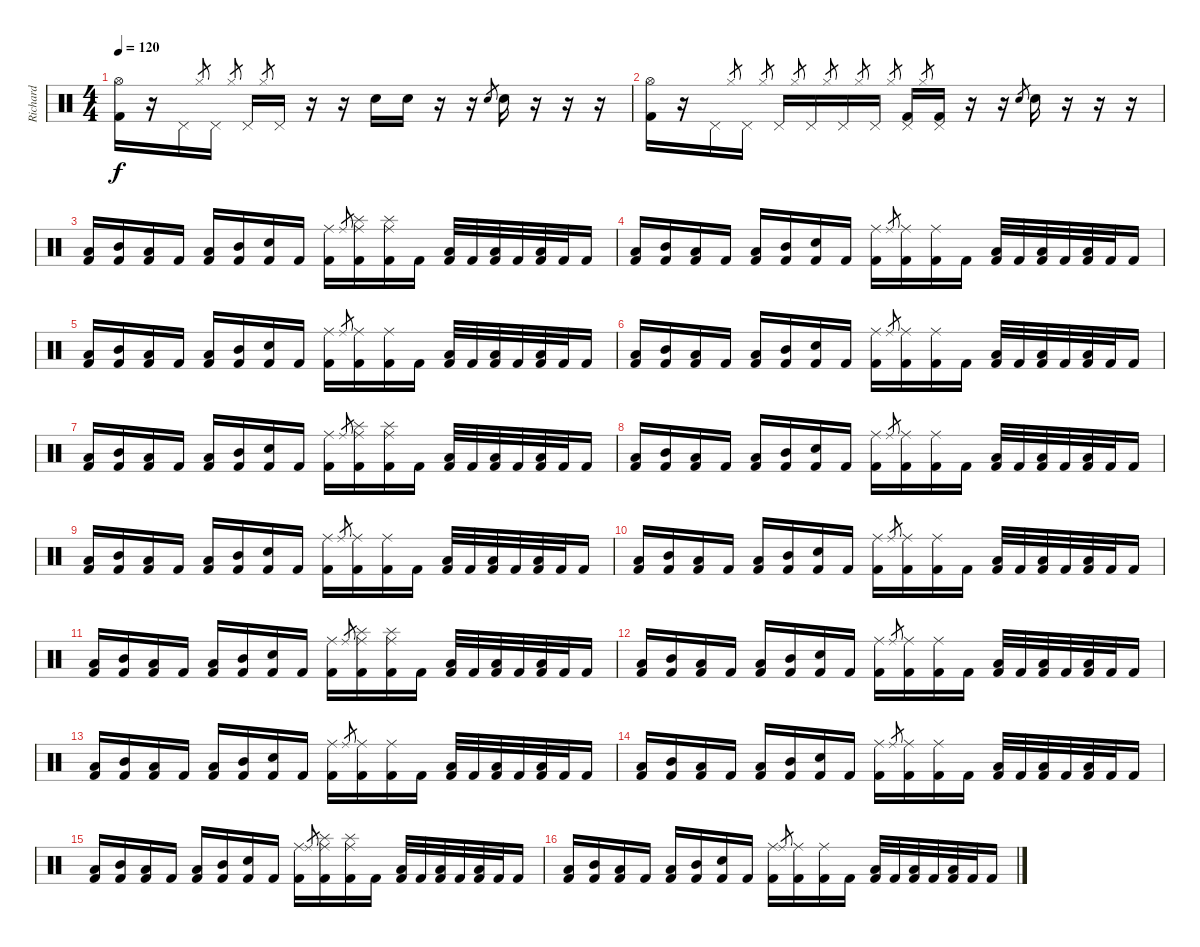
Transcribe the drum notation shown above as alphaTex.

\track ("Richard " "Richard ") {instrument percussion}
\staff {score}
\articulation defaults
\ts (4 4)
\tempo 120
\clef neutral
\ks c
("Hi-Hat (open)" "Kick (hit) 2").16{dy f} r.16 "Pedal Hi-Hat (hit)".16 "Hi-Hat (closed)".8{gr} "Pedal Hi-Hat (hit)".16 "Hi-Hat (closed)".8{gr} "Pedal Hi-Hat (hit)".16 "Hi-Hat (closed)".8{gr} "Pedal Hi-Hat (hit)".16 r.16 r.16 "Snare (hit) 2".16 "Snare (hit) 2".16 r.16 r.16 "Snare (hit) 2".8{gr} "Snare (hit) 2".16 r.16 r.16 r.16 |
("Hi-Hat (open)" "Kick (hit) 2").16 r.16 "Pedal Hi-Hat (hit)".16 "Hi-Hat (closed)".8{gr} "Pedal Hi-Hat (hit)".16 "Hi-Hat (closed)".8{gr} "Pedal Hi-Hat (hit)".16 "Hi-Hat (closed)".8{gr} "Pedal Hi-Hat (hit)".16 "Hi-Hat (closed)".8{gr} "Pedal Hi-Hat (hit)".16 "Hi-Hat (closed)".8{gr} "Pedal Hi-Hat (hit)".16 "Hi-Hat (closed)".8{gr} ("Pedal Hi-Hat (hit)" "Kick (hit) 2").16 "Hi-Hat (closed)".8{gr} ("Pedal Hi-Hat (hit)" "Kick (hit) 2").16 r.16 r.16 "Snare (hit) 2".8{gr} "Snare (hit) 2".16 r.16 r.16 r.16 |
("Low Tom (hit)" "Kick (hit) 2").16 ("Mid Tom (hit)" "Kick (hit) 2").16 ("Low Tom (hit)" "Kick (hit) 2").16 "Kick (hit) 2".16 ("Low Tom (hit)" "Kick (hit) 2").16 ("Mid Tom (hit)" "Kick (hit) 2").16 ("Snare (hit) 2" "Kick (hit) 2").16 "Kick (hit) 2".16 ("Ride (middle)" "Kick (hit) 2").16 "Ride (middle)".8{gr} ("Ride (middle)" "Splash (hit)" "Kick (hit) 2").16 ("Ride (middle)" "Splash (hit)" "Kick (hit) 2").16 "Kick (hit) 2".16 ("Low Tom (hit)" "Kick (hit) 2").32 "Kick (hit) 2".32 ("Low Tom (hit)" "Kick (hit) 2").32 "Kick (hit) 2".32 ("Low Tom (hit)" "Kick (hit) 2").32 "Kick (hit) 2".32 "Kick (hit) 2".16 |
("Low Tom (hit)" "Kick (hit) 2").16 ("Mid Tom (hit)" "Kick (hit) 2").16 ("Low Tom (hit)" "Kick (hit) 2").16 "Kick (hit) 2".16 ("Low Tom (hit)" "Kick (hit) 2").16 ("Mid Tom (hit)" "Kick (hit) 2").16 ("Snare (hit) 2" "Kick (hit) 2").16 "Kick (hit) 2".16 ("Ride (middle)" "Kick (hit) 2").16 "Ride (middle)".8{gr} ("Ride (middle)" "Kick (hit) 2").16 ("Ride (middle)" "Kick (hit) 2").16 "Kick (hit) 2".16 ("Low Tom (hit)" "Kick (hit) 2").32 "Kick (hit) 2".32 ("Low Tom (hit)" "Kick (hit) 2").32 "Kick (hit) 2".32 ("Low Tom (hit)" "Kick (hit) 2").32 "Kick (hit) 2".32 "Kick (hit) 2".16 |
("Low Tom (hit)" "Kick (hit) 2").16 ("Mid Tom (hit)" "Kick (hit) 2").16 ("Low Tom (hit)" "Kick (hit) 2").16 "Kick (hit) 2".16 ("Low Tom (hit)" "Kick (hit) 2").16 ("Mid Tom (hit)" "Kick (hit) 2").16 ("Snare (hit) 2" "Kick (hit) 2").16 "Kick (hit) 2".16 ("Ride (middle)" "Kick (hit) 2").16 "Ride (middle)".8{gr} ("Ride (middle)" "Kick (hit) 2").16 ("Ride (middle)" "Kick (hit) 2").16 "Kick (hit) 2".16 ("Low Tom (hit)" "Kick (hit) 2").32 "Kick (hit) 2".32 ("Low Tom (hit)" "Kick (hit) 2").32 "Kick (hit) 2".32 ("Low Tom (hit)" "Kick (hit) 2").32 "Kick (hit) 2".32 "Kick (hit) 2".16 |
("Low Tom (hit)" "Kick (hit) 2").16 ("Mid Tom (hit)" "Kick (hit) 2").16 ("Low Tom (hit)" "Kick (hit) 2").16 "Kick (hit) 2".16 ("Low Tom (hit)" "Kick (hit) 2").16 ("Mid Tom (hit)" "Kick (hit) 2").16 ("Snare (hit) 2" "Kick (hit) 2").16 "Kick (hit) 2".16 ("Ride (middle)" "Kick (hit) 2").16 "Ride (middle)".8{gr} ("Ride (middle)" "Kick (hit) 2").16 ("Ride (middle)" "Kick (hit) 2").16 "Kick (hit) 2".16 ("Low Tom (hit)" "Kick (hit) 2").32 "Kick (hit) 2".32 ("Low Tom (hit)" "Kick (hit) 2").32 "Kick (hit) 2".32 ("Low Tom (hit)" "Kick (hit) 2").32 "Kick (hit) 2".32 "Kick (hit) 2".16 |
("Low Tom (hit)" "Kick (hit) 2").16 ("Mid Tom (hit)" "Kick (hit) 2").16 ("Low Tom (hit)" "Kick (hit) 2").16 "Kick (hit) 2".16 ("Low Tom (hit)" "Kick (hit) 2").16 ("Mid Tom (hit)" "Kick (hit) 2").16 ("Snare (hit) 2" "Kick (hit) 2").16 "Kick (hit) 2".16 ("Ride (middle)" "Kick (hit) 2").16 "Ride (middle)".8{gr} ("Ride (middle)" "Splash (hit)" "Kick (hit) 2").16 ("Ride (middle)" "Splash (hit)" "Kick (hit) 2").16 "Kick (hit) 2".16 ("Low Tom (hit)" "Kick (hit) 2").32 "Kick (hit) 2".32 ("Low Tom (hit)" "Kick (hit) 2").32 "Kick (hit) 2".32 ("Low Tom (hit)" "Kick (hit) 2").32 "Kick (hit) 2".32 "Kick (hit) 2".16 |
("Low Tom (hit)" "Kick (hit) 2").16 ("Mid Tom (hit)" "Kick (hit) 2").16 ("Low Tom (hit)" "Kick (hit) 2").16 "Kick (hit) 2".16 ("Low Tom (hit)" "Kick (hit) 2").16 ("Mid Tom (hit)" "Kick (hit) 2").16 ("Snare (hit) 2" "Kick (hit) 2").16 "Kick (hit) 2".16 ("Ride (middle)" "Kick (hit) 2").16 "Ride (middle)".8{gr} ("Ride (middle)" "Kick (hit) 2").16 ("Ride (middle)" "Kick (hit) 2").16 "Kick (hit) 2".16 ("Low Tom (hit)" "Kick (hit) 2").32 "Kick (hit) 2".32 ("Low Tom (hit)" "Kick (hit) 2").32 "Kick (hit) 2".32 ("Low Tom (hit)" "Kick (hit) 2").32 "Kick (hit) 2".32 "Kick (hit) 2".16 |
("Low Tom (hit)" "Kick (hit) 2").16 ("Mid Tom (hit)" "Kick (hit) 2").16 ("Low Tom (hit)" "Kick (hit) 2").16 "Kick (hit) 2".16 ("Low Tom (hit)" "Kick (hit) 2").16 ("Mid Tom (hit)" "Kick (hit) 2").16 ("Snare (hit) 2" "Kick (hit) 2").16 "Kick (hit) 2".16 ("Ride (middle)" "Kick (hit) 2").16 "Ride (middle)".8{gr} ("Ride (middle)" "Kick (hit) 2").16 ("Ride (middle)" "Kick (hit) 2").16 "Kick (hit) 2".16 ("Low Tom (hit)" "Kick (hit) 2").32 "Kick (hit) 2".32 ("Low Tom (hit)" "Kick (hit) 2").32 "Kick (hit) 2".32 ("Low Tom (hit)" "Kick (hit) 2").32 "Kick (hit) 2".32 "Kick (hit) 2".16 |
("Low Tom (hit)" "Kick (hit) 2").16 ("Mid Tom (hit)" "Kick (hit) 2").16 ("Low Tom (hit)" "Kick (hit) 2").16 "Kick (hit) 2".16 ("Low Tom (hit)" "Kick (hit) 2").16 ("Mid Tom (hit)" "Kick (hit) 2").16 ("Snare (hit) 2" "Kick (hit) 2").16 "Kick (hit) 2".16 ("Ride (middle)" "Kick (hit) 2").16 "Ride (middle)".8{gr} ("Ride (middle)" "Kick (hit) 2").16 ("Ride (middle)" "Kick (hit) 2").16 "Kick (hit) 2".16 ("Low Tom (hit)" "Kick (hit) 2").32 "Kick (hit) 2".32 ("Low Tom (hit)" "Kick (hit) 2").32 "Kick (hit) 2".32 ("Low Tom (hit)" "Kick (hit) 2").32 "Kick (hit) 2".32 "Kick (hit) 2".16 |
("Low Tom (hit)" "Kick (hit) 2").16 ("Mid Tom (hit)" "Kick (hit) 2").16 ("Low Tom (hit)" "Kick (hit) 2").16 "Kick (hit) 2".16 ("Low Tom (hit)" "Kick (hit) 2").16 ("Mid Tom (hit)" "Kick (hit) 2").16 ("Snare (hit) 2" "Kick (hit) 2").16 "Kick (hit) 2".16 ("Ride (middle)" "Kick (hit) 2").16 "Ride (middle)".8{gr} ("Ride (middle)" "Splash (hit)" "Kick (hit) 2").16 ("Ride (middle)" "Splash (hit)" "Kick (hit) 2").16 "Kick (hit) 2".16 ("Low Tom (hit)" "Kick (hit) 2").32 "Kick (hit) 2".32 ("Low Tom (hit)" "Kick (hit) 2").32 "Kick (hit) 2".32 ("Low Tom (hit)" "Kick (hit) 2").32 "Kick (hit) 2".32 "Kick (hit) 2".16 |
("Low Tom (hit)" "Kick (hit) 2").16 ("Mid Tom (hit)" "Kick (hit) 2").16 ("Low Tom (hit)" "Kick (hit) 2").16 "Kick (hit) 2".16 ("Low Tom (hit)" "Kick (hit) 2").16 ("Mid Tom (hit)" "Kick (hit) 2").16 ("Snare (hit) 2" "Kick (hit) 2").16 "Kick (hit) 2".16 ("Ride (middle)" "Kick (hit) 2").16 "Ride (middle)".8{gr} ("Ride (middle)" "Kick (hit) 2").16 ("Ride (middle)" "Kick (hit) 2").16 "Kick (hit) 2".16 ("Low Tom (hit)" "Kick (hit) 2").32 "Kick (hit) 2".32 ("Low Tom (hit)" "Kick (hit) 2").32 "Kick (hit) 2".32 ("Low Tom (hit)" "Kick (hit) 2").32 "Kick (hit) 2".32 "Kick (hit) 2".16 |
("Low Tom (hit)" "Kick (hit) 2").16 ("Mid Tom (hit)" "Kick (hit) 2").16 ("Low Tom (hit)" "Kick (hit) 2").16 "Kick (hit) 2".16 ("Low Tom (hit)" "Kick (hit) 2").16 ("Mid Tom (hit)" "Kick (hit) 2").16 ("Snare (hit) 2" "Kick (hit) 2").16 "Kick (hit) 2".16 ("Ride (middle)" "Kick (hit) 2").16 "Ride (middle)".8{gr} ("Ride (middle)" "Kick (hit) 2").16 ("Ride (middle)" "Kick (hit) 2").16 "Kick (hit) 2".16 ("Low Tom (hit)" "Kick (hit) 2").32 "Kick (hit) 2".32 ("Low Tom (hit)" "Kick (hit) 2").32 "Kick (hit) 2".32 ("Low Tom (hit)" "Kick (hit) 2").32 "Kick (hit) 2".32 "Kick (hit) 2".16 |
("Low Tom (hit)" "Kick (hit) 2").16 ("Mid Tom (hit)" "Kick (hit) 2").16 ("Low Tom (hit)" "Kick (hit) 2").16 "Kick (hit) 2".16 ("Low Tom (hit)" "Kick (hit) 2").16 ("Mid Tom (hit)" "Kick (hit) 2").16 ("Snare (hit) 2" "Kick (hit) 2").16 "Kick (hit) 2".16 ("Ride (middle)" "Kick (hit) 2").16 "Ride (middle)".8{gr} ("Ride (middle)" "Kick (hit) 2").16 ("Ride (middle)" "Kick (hit) 2").16 "Kick (hit) 2".16 ("Low Tom (hit)" "Kick (hit) 2").32 "Kick (hit) 2".32 ("Low Tom (hit)" "Kick (hit) 2").32 "Kick (hit) 2".32 ("Low Tom (hit)" "Kick (hit) 2").32 "Kick (hit) 2".32 "Kick (hit) 2".16 |
("Low Tom (hit)" "Kick (hit) 2").16 ("Mid Tom (hit)" "Kick (hit) 2").16 ("Low Tom (hit)" "Kick (hit) 2").16 "Kick (hit) 2".16 ("Low Tom (hit)" "Kick (hit) 2").16 ("Mid Tom (hit)" "Kick (hit) 2").16 ("Snare (hit) 2" "Kick (hit) 2").16 "Kick (hit) 2".16 ("Ride (middle)" "Kick (hit) 2").16 "Ride (middle)".8{gr} ("Ride (middle)" "Splash (hit)" "Kick (hit) 2").16 ("Ride (middle)" "Splash (hit)" "Kick (hit) 2").16 "Kick (hit) 2".16 ("Low Tom (hit)" "Kick (hit) 2").32 "Kick (hit) 2".32 ("Low Tom (hit)" "Kick (hit) 2").32 "Kick (hit) 2".32 ("Low Tom (hit)" "Kick (hit) 2").32 "Kick (hit) 2".32 "Kick (hit) 2".16 |
("Low Tom (hit)" "Kick (hit) 2").16 ("Mid Tom (hit)" "Kick (hit) 2").16 ("Low Tom (hit)" "Kick (hit) 2").16 "Kick (hit) 2".16 ("Low Tom (hit)" "Kick (hit) 2").16 ("Mid Tom (hit)" "Kick (hit) 2").16 ("Snare (hit) 2" "Kick (hit) 2").16 "Kick (hit) 2".16 ("Ride (middle)" "Kick (hit) 2").16 "Ride (middle)".8{gr} ("Ride (middle)" "Kick (hit) 2").16 ("Ride (middle)" "Kick (hit) 2").16 "Kick (hit) 2".16 ("Low Tom (hit)" "Kick (hit) 2").32 "Kick (hit) 2".32 ("Low Tom (hit)" "Kick (hit) 2").32 "Kick (hit) 2".32 ("Low Tom (hit)" "Kick (hit) 2").32 "Kick (hit) 2".32 "Kick (hit) 2".16
